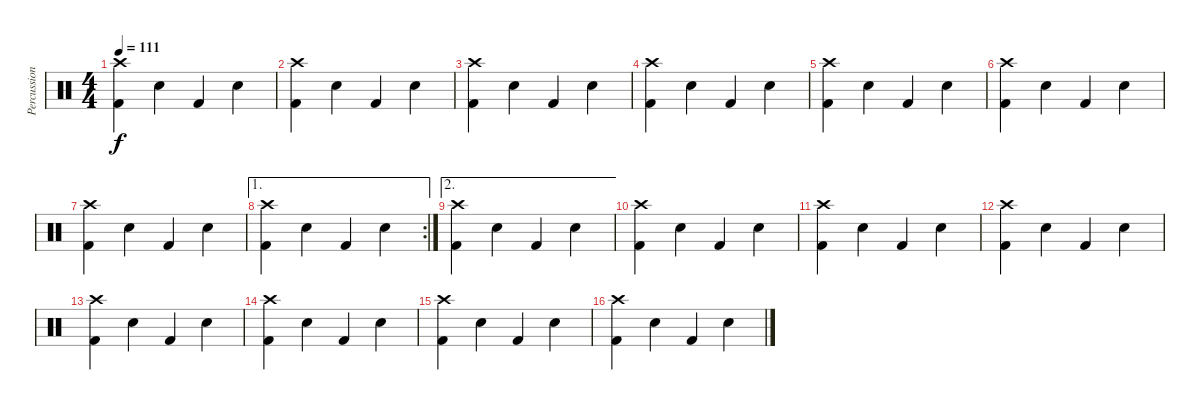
\track ("Percussion" "Percussion") {instrument percussion}
\staff {score}
\articulation defaults
\ts (4 4)
\tempo 111
\clef neutral
\ks c
("Crash high (hit)" "Kick (hit) 2").4{dy f} "Snare (hit) 2".4 "Kick (hit) 2".4 "Snare (hit) 2".4 |
("Crash high (hit)" "Kick (hit) 2").4 "Snare (hit) 2".4 "Kick (hit) 2".4 "Snare (hit) 2".4 |
("Crash high (hit)" "Kick (hit) 2").4 "Snare (hit) 2".4 "Kick (hit) 2".4 "Snare (hit) 2".4 |
("Crash high (hit)" "Kick (hit) 2").4 "Snare (hit) 2".4 "Kick (hit) 2".4 "Snare (hit) 2".4 |
("Crash high (hit)" "Kick (hit) 2").4 "Snare (hit) 2".4 "Kick (hit) 2".4 "Snare (hit) 2".4 |
("Crash high (hit)" "Kick (hit) 2").4 "Snare (hit) 2".4 "Kick (hit) 2".4 "Snare (hit) 2".4 |
("Crash high (hit)" "Kick (hit) 2").4 "Snare (hit) 2".4 "Kick (hit) 2".4 "Snare (hit) 2".4 |
\ae 1
\rc 2
("Crash high (hit)" "Kick (hit) 2").4 "Snare (hit) 2".4 "Kick (hit) 2".4 "Snare (hit) 2".4 |
\ae 2
("Crash high (hit)" "Kick (hit) 2").4 "Snare (hit) 2".4 "Kick (hit) 2".4 "Snare (hit) 2".4 |
("Crash high (hit)" "Kick (hit) 2").4 "Snare (hit) 2".4 "Kick (hit) 2".4 "Snare (hit) 2".4 |
("Crash high (hit)" "Kick (hit) 2").4 "Snare (hit) 2".4 "Kick (hit) 2".4 "Snare (hit) 2".4 |
("Crash high (hit)" "Kick (hit) 2").4 "Snare (hit) 2".4 "Kick (hit) 2".4 "Snare (hit) 2".4 |
("Crash high (hit)" "Kick (hit) 2").4 "Snare (hit) 2".4 "Kick (hit) 2".4 "Snare (hit) 2".4 |
("Crash high (hit)" "Kick (hit) 2").4 "Snare (hit) 2".4 "Kick (hit) 2".4 "Snare (hit) 2".4 |
("Crash high (hit)" "Kick (hit) 2").4 "Snare (hit) 2".4 "Kick (hit) 2".4 "Snare (hit) 2".4 |
("Crash high (hit)" "Kick (hit) 2").4 "Snare (hit) 2".4 "Kick (hit) 2".4 "Snare (hit) 2".4
